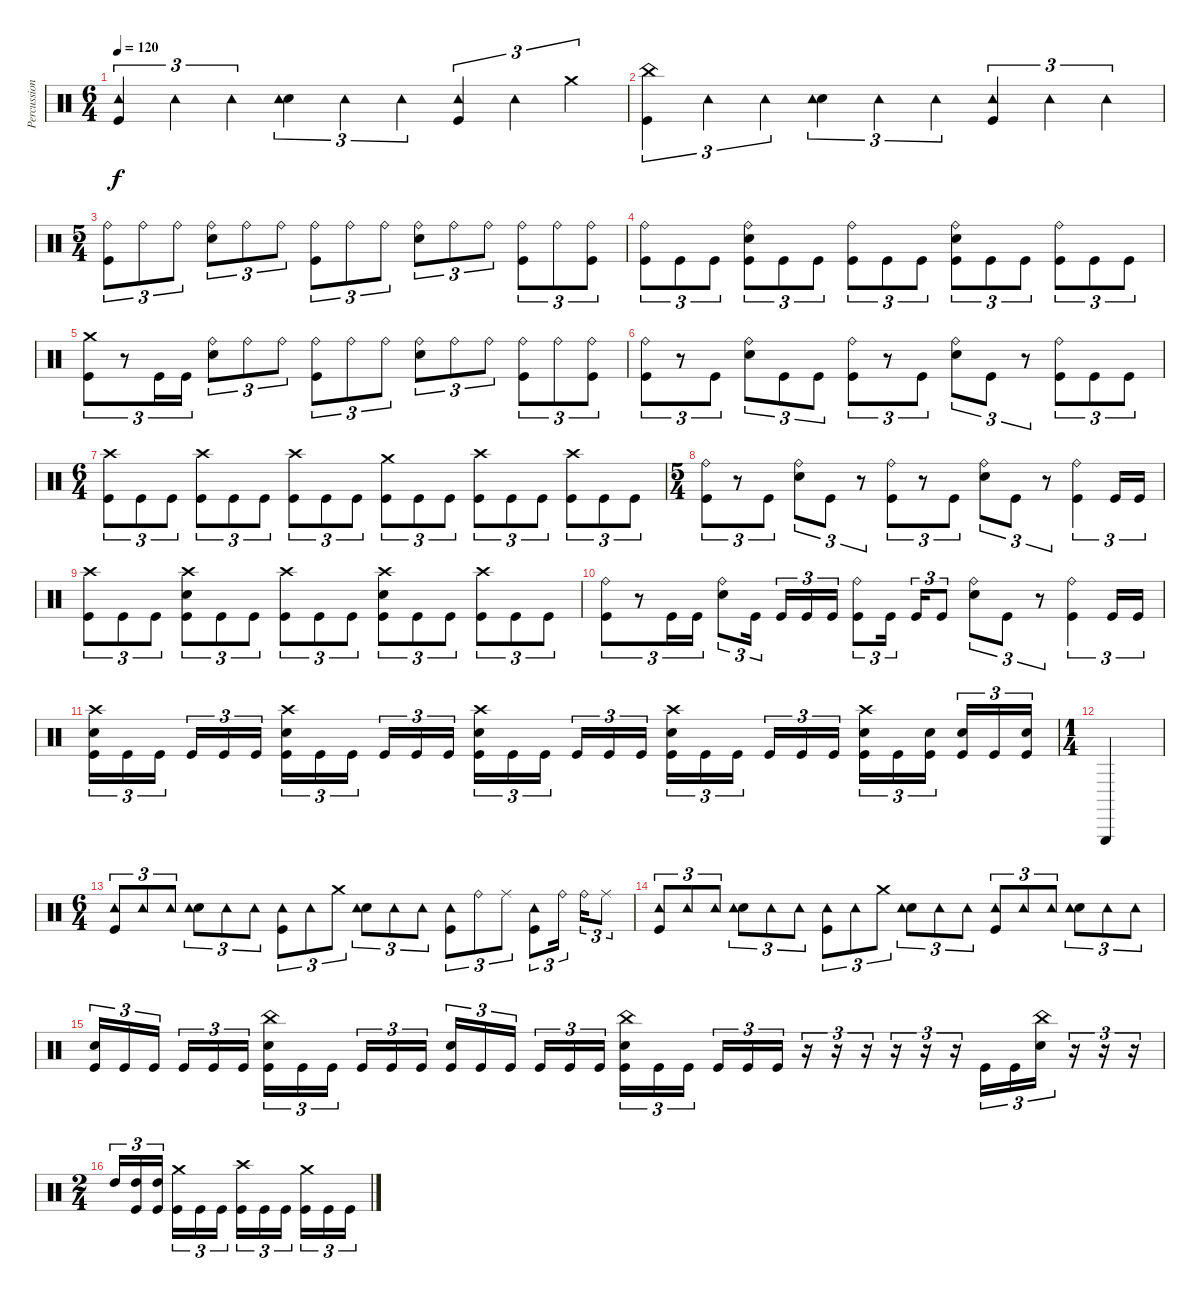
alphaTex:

\track ("Percussioni" "Percussion") {instrument percussion}
\staff {score}
\articulation defaults
\ts (6 4)
\tempo 120
\clef neutral
\ks c
("Kick (hit)" "Tambourine (hit)").4{tu (3 2) dy f} "Tambourine (hit)".4{tu (3 2)} "Tambourine (hit)".4{tu (3 2)} ("Snare (hit) 2" "Tambourine (hit)").4{tu (3 2)} "Tambourine (hit)".4{tu (3 2)} "Tambourine (hit)".4{tu (3 2)} ("Kick (hit)" "Tambourine (hit)").4{tu (3 2)} "Tambourine (hit)".4{tu (3 2)} "Crash medium (hit)".4{tu (3 2)} |
("Kick (hit)" "China (hit)").4{tu (3 2)} "Tambourine (hit)".4{tu (3 2)} "Tambourine (hit)".4{tu (3 2)} ("Snare (hit) 2" "Tambourine (hit)").4{tu (3 2)} "Tambourine (hit)".4{tu (3 2)} "Tambourine (hit)".4{tu (3 2)} ("Kick (hit)" "Tambourine (hit)").4{tu (3 2)} "Tambourine (hit)".4{tu (3 2)} "Tambourine (hit)".4{tu (3 2)} |
\ts (5 4)
("Kick (hit)" "Ride (bell)").8{tu (3 2)} "Ride (bell)".8{tu (3 2)} "Ride (bell)".8{tu (3 2)} ("Snare (hit) 2" "Ride (bell)").8{tu (3 2)} "Ride (bell)".8{tu (3 2)} "Ride (bell)".8{tu (3 2)} ("Kick (hit)" "Ride (bell)").8{tu (3 2)} "Ride (bell)".8{tu (3 2)} "Ride (bell)".8{tu (3 2)} ("Snare (hit) 2" "Ride (bell)").8{tu (3 2)} "Ride (bell)".8{tu (3 2)} "Ride (bell)".8{tu (3 2)} ("Kick (hit)" "Ride (bell)").8{tu (3 2)} "Ride (bell)".8{tu (3 2)} ("Kick (hit)" "Ride (bell)").8{tu (3 2)} |
("Kick (hit)" "Ride (bell)").8{tu (3 2)} "Kick (hit)".8{tu (3 2)} "Kick (hit)".8{tu (3 2)} ("Kick (hit)" "Snare (hit) 2" "Ride (bell)").8{tu (3 2)} "Kick (hit)".8{tu (3 2)} "Kick (hit)".8{tu (3 2)} ("Kick (hit)" "Ride (bell)").8{tu (3 2)} "Kick (hit)".8{tu (3 2)} "Kick (hit)".8{tu (3 2)} ("Kick (hit)" "Snare (hit) 2" "Ride (bell)").8{tu (3 2)} "Kick (hit)".8{tu (3 2)} "Kick (hit)".8{tu (3 2)} ("Kick (hit)" "Ride (bell)").8{tu (3 2)} "Kick (hit)".8{tu (3 2)} "Kick (hit)".8{tu (3 2)} |
("Kick (hit)" "Crash medium (hit)").8{tu (3 2)} r.8{tu (3 2)} "Kick (hit)".16{tu (3 2)} "Kick (hit)".16{tu (3 2)} ("Snare (hit) 2" "Ride (bell)").8{tu (3 2)} "Ride (bell)".8{tu (3 2)} "Ride (bell)".8{tu (3 2)} ("Kick (hit)" "Ride (bell)").8{tu (3 2)} "Ride (bell)".8{tu (3 2)} "Ride (bell)".8{tu (3 2)} ("Snare (hit) 2" "Ride (bell)").8{tu (3 2)} "Ride (bell)".8{tu (3 2)} "Ride (bell)".8{tu (3 2)} ("Kick (hit)" "Ride (bell)").8{tu (3 2)} "Ride (bell)".8{tu (3 2)} ("Kick (hit)" "Ride (bell)").8{tu (3 2)} |
("Kick (hit)" "Ride (bell)").8{tu (3 2)} r.8{tu (3 2)} "Kick (hit)".8{tu (3 2)} ("Snare (hit) 2" "Ride (bell)").8{tu (3 2)} "Kick (hit)".8{tu (3 2)} "Kick (hit)".8{tu (3 2)} ("Kick (hit)" "Ride (bell)").8{tu (3 2)} r.8{tu (3 2)} "Kick (hit)".8{tu (3 2)} ("Snare (hit) 2" "Ride (bell)").8{tu (3 2)} "Kick (hit)".8{tu (3 2)} r.8{tu (3 2)} ("Kick (hit)" "Ride (bell)").8{tu (3 2)} "Kick (hit)".8{tu (3 2)} "Kick (hit)".8{tu (3 2)} |
\ts (6 4)
("Kick (hit)" "Crash high (hit)").8{tu (3 2)} "Kick (hit)".8{tu (3 2)} "Kick (hit)".8{tu (3 2)} ("Kick (hit)" "Crash high (hit)").8{tu (3 2)} "Kick (hit)".8{tu (3 2)} "Kick (hit)".8{tu (3 2)} ("Kick (hit)" "Crash high (hit)").8{tu (3 2)} "Kick (hit)".8{tu (3 2)} "Kick (hit)".8{tu (3 2)} ("Kick (hit)" "Crash medium (hit)").8{tu (3 2)} "Kick (hit)".8{tu (3 2)} "Kick (hit)".8{tu (3 2)} ("Kick (hit)" "Crash high (hit)").8{tu (3 2)} "Kick (hit)".8{tu (3 2)} "Kick (hit)".8{tu (3 2)} ("Kick (hit)" "Crash high (hit)").8{tu (3 2)} "Kick (hit)".8{tu (3 2)} "Kick (hit)".8{tu (3 2)} |
\ts (5 4)
("Kick (hit)" "Ride (bell)").8{tu (3 2)} r.8{tu (3 2)} "Kick (hit)".8{tu (3 2)} ("Snare (hit) 2" "Ride (bell)").8{tu (3 2)} "Kick (hit)".8{tu (3 2)} r.8{tu (3 2)} ("Kick (hit)" "Ride (bell)").8{tu (3 2)} r.8{tu (3 2)} "Kick (hit)".8{tu (3 2)} ("Snare (hit) 2" "Ride (bell)").8{tu (3 2)} "Kick (hit)".8{tu (3 2)} r.8{tu (3 2)} ("Kick (hit)" "Ride (bell)").4{tu (3 2)} "Kick (hit)".16{tu (3 2)} "Kick (hit)".16{tu (3 2)} |
("Kick (hit)" "Crash high (hit)").8{tu (3 2)} "Kick (hit)".8{tu (3 2)} "Kick (hit)".8{tu (3 2)} ("Kick (hit)" "Snare (hit) 2" "Crash high (hit)").8{tu (3 2)} "Kick (hit)".8{tu (3 2)} "Kick (hit)".8{tu (3 2)} ("Kick (hit)" "Crash high (hit)").8{tu (3 2)} "Kick (hit)".8{tu (3 2)} "Kick (hit)".8{tu (3 2)} ("Kick (hit)" "Snare (hit) 2" "Crash high (hit)").8{tu (3 2)} "Kick (hit)".8{tu (3 2)} "Kick (hit)".8{tu (3 2)} ("Kick (hit)" "Crash high (hit)").8{tu (3 2)} "Kick (hit)".8{tu (3 2)} "Kick (hit)".8{tu (3 2)} |
("Kick (hit)" "Ride (bell)").8{tu (3 2)} r.8{tu (3 2)} "Kick (hit)".16{tu (3 2)} "Kick (hit)".16{tu (3 2)} ("Snare (hit) 2" "Ride (bell)").8{tu (3 2)} "Kick (hit)".16{tu (3 2)} "Kick (hit)".16{tu (3 2)} "Kick (hit)".16{tu (3 2)} "Kick (hit)".16{tu (3 2)} ("Kick (hit)" "Ride (bell)").8{tu (3 2)} "Kick (hit)".16{tu (3 2)} "Kick (hit)".16{tu (3 2)} "Kick (hit)".8{tu (3 2)} ("Snare (hit) 2" "Ride (bell)").8{tu (3 2)} "Kick (hit)".8{tu (3 2)} r.8{tu (3 2)} ("Kick (hit)" "Ride (bell)").4{tu (3 2)} "Kick (hit)".16{tu (3 2)} "Kick (hit)".16{tu (3 2)} |
("Kick (hit)" "Snare (hit) 2" "Crash high (hit)").16{tu (3 2)} "Kick (hit)".16{tu (3 2)} "Kick (hit)".16{tu (3 2)} "Kick (hit)".16{tu (3 2)} "Kick (hit)".16{tu (3 2)} "Kick (hit)".16{tu (3 2)} ("Kick (hit)" "Snare (hit) 2" "Crash high (hit)").16{tu (3 2)} "Kick (hit)".16{tu (3 2)} "Kick (hit)".16{tu (3 2)} "Kick (hit)".16{tu (3 2)} "Kick (hit)".16{tu (3 2)} "Kick (hit)".16{tu (3 2)} ("Kick (hit)" "Snare (hit) 2" "Crash high (hit)").16{tu (3 2)} "Kick (hit)".16{tu (3 2)} "Kick (hit)".16{tu (3 2)} "Kick (hit)".16{tu (3 2)} "Kick (hit)".16{tu (3 2)} "Kick (hit)".16{tu (3 2)} ("Kick (hit)" "Snare (hit) 2" "Crash high (hit)").16{tu (3 2)} "Kick (hit)".16{tu (3 2)} "Kick (hit)".16{tu (3 2)} "Kick (hit)".16{tu (3 2)} "Kick (hit)".16{tu (3 2)} "Kick (hit)".16{tu (3 2)} ("Kick (hit)" "Snare (hit) 2" "Crash high (hit)").16{tu (3 2)} "Kick (hit)".16{tu (3 2)} ("Kick (hit)" "Snare (hit) 2").16{tu (3 2)} ("Kick (hit)" "Snare (hit) 2").16{tu (3 2)} "Kick (hit)".16{tu (3 2)} ("Kick (hit)" "Snare (hit) 2").16{tu (3 2)} |
\ts (1 4)
"Triangle (hit)".4 |
\ts (6 4)
("Kick (hit)" "Tambourine (hit)").8{tu (3 2)} "Tambourine (hit)".8{tu (3 2)} "Tambourine (hit)".8{tu (3 2)} ("Snare (hit) 2" "Tambourine (hit)").8{tu (3 2)} "Tambourine (hit)".8{tu (3 2)} "Tambourine (hit)".8{tu (3 2)} ("Kick (hit)" "Tambourine (hit)").8{tu (3 2)} "Tambourine (hit)".8{tu (3 2)} "Crash medium (hit)".8{tu (3 2)} ("Snare (hit) 2" "Tambourine (hit)").8{tu (3 2)} "Tambourine (hit)".8{tu (3 2)} "Tambourine (hit)".8{tu (3 2)} ("Kick (hit)" "Tambourine (hit)").8{tu (3 2)} "Ride (bell)".8{tu (3 2)} "Ride (middle)".8{tu (3 2)} ("Kick (hit)" "Tambourine (hit)").8{tu (3 2)} "Ride (bell)".16{tu (3 2)} "Ride (bell)".16{tu (3 2)} "Ride (middle)".8{tu (3 2)} |
("Kick (hit)" "Tambourine (hit)").8{tu (3 2)} "Tambourine (hit)".8{tu (3 2)} "Tambourine (hit)".8{tu (3 2)} ("Snare (hit) 2" "Tambourine (hit)").8{tu (3 2)} "Tambourine (hit)".8{tu (3 2)} "Tambourine (hit)".8{tu (3 2)} ("Kick (hit)" "Tambourine (hit)").8{tu (3 2)} "Tambourine (hit)".8{tu (3 2)} "Crash medium (hit)".8{tu (3 2)} ("Snare (hit) 2" "Tambourine (hit)").8{tu (3 2)} "Tambourine (hit)".8{tu (3 2)} "Tambourine (hit)".8{tu (3 2)} ("Kick (hit)" "Tambourine (hit)").8{tu (3 2)} "Tambourine (hit)".8{tu (3 2)} "Tambourine (hit)".8{tu (3 2)} ("Snare (hit) 2" "Tambourine (hit)").8{tu (3 2)} "Tambourine (hit)".8{tu (3 2)} "Tambourine (hit)".8{tu (3 2)} |
("Kick (hit)" "Snare (hit) 2").16{tu (3 2)} "Kick (hit)".16{tu (3 2)} "Kick (hit)".16{tu (3 2)} "Kick (hit)".16{tu (3 2)} "Kick (hit)".16{tu (3 2)} "Kick (hit)".16{tu (3 2)} ("Kick (hit)" "Snare (hit) 2" "China (hit)").16{tu (3 2)} "Kick (hit)".16{tu (3 2)} "Kick (hit)".16{tu (3 2)} "Kick (hit)".16{tu (3 2)} "Kick (hit)".16{tu (3 2)} "Kick (hit)".16{tu (3 2)} ("Kick (hit)" "Snare (hit) 2").16{tu (3 2)} "Kick (hit)".16{tu (3 2)} "Kick (hit)".16{tu (3 2)} "Kick (hit)".16{tu (3 2)} "Kick (hit)".16{tu (3 2)} "Kick (hit)".16{tu (3 2)} ("Kick (hit)" "Snare (hit) 2" "China (hit)").16{tu (3 2)} "Kick (hit)".16{tu (3 2)} "Kick (hit)".16{tu (3 2)} "Kick (hit)".16{tu (3 2)} "Kick (hit)".16{tu (3 2)} "Kick (hit)".16{tu (3 2)} r.16{tu (3 2)} r.16{tu (3 2)} r.16{tu (3 2)} r.16{tu (3 2)} r.16{tu (3 2)} r.16{tu (3 2)} "Kick (hit)".16{tu (3 2)} "Kick (hit)".16{tu (3 2)} ("Snare (hit) 2" "China (hit)").16{tu (3 2)} r.16{tu (3 2)} r.16{tu (3 2)} r.16{tu (3 2)} |
\ts (2 4)
"High Tom (hit)".16{tu (3 2)} ("Kick (hit)" "High Tom (hit)").16{tu (3 2)} ("Kick (hit)" "High Tom (hit)").16{tu (3 2)} ("Kick (hit)" "Crash medium (hit)").16{tu (3 2)} "Kick (hit)".16{tu (3 2)} "Kick (hit)".16{tu (3 2)} ("Kick (hit)" "Crash high (hit)").16{tu (3 2)} "Kick (hit)".16{tu (3 2)} "Kick (hit)".16{tu (3 2)} ("Kick (hit)" "Crash medium (hit)").16{tu (3 2)} "Kick (hit)".16{tu (3 2)} "Kick (hit)".16{tu (3 2)}
